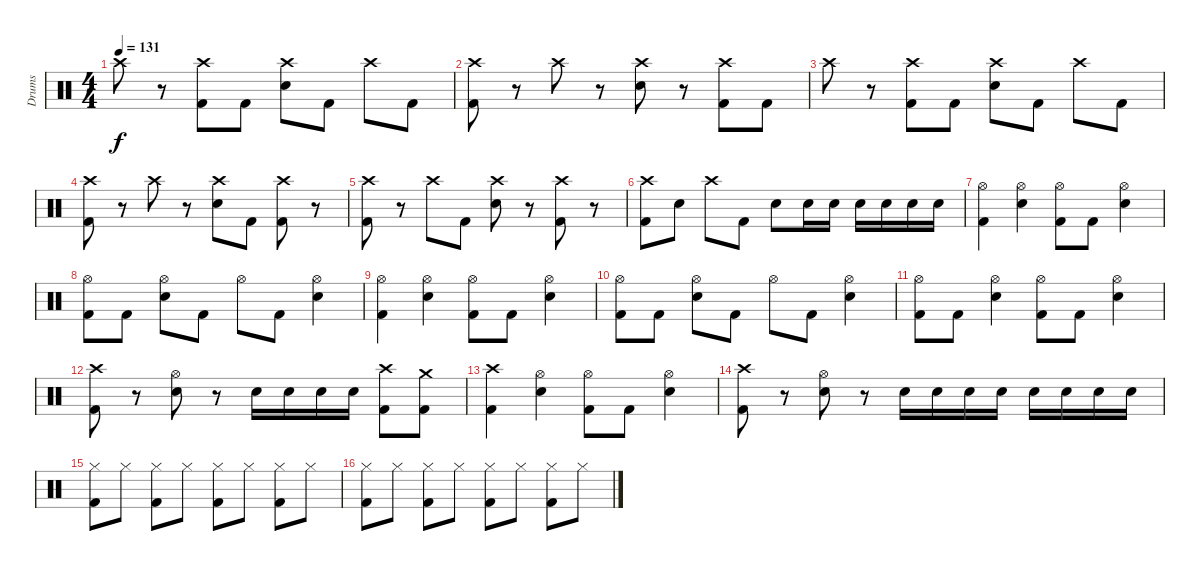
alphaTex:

\track ("Drums" "Drums") {instrument percussion}
\staff {score}
\articulation defaults
\ts (4 4)
\tempo 131
\clef neutral
\ks c "Crash high (hit)".8{dy f}
r.8 ("Crash high (hit)" "Kick (hit) 2").8 "Kick (hit) 2".8 ("Crash high (hit)" "Electric Snare (hit)").8 "Kick (hit) 2".8 "Crash high (hit)".8 "Kick (hit) 2".8 |
("Crash high (hit)" "Kick (hit) 2").8 r.8 "Crash high (hit)".8 r.8 ("Crash high (hit)" "Electric Snare (hit)").8 r.8 ("Crash high (hit)" "Kick (hit) 2").8 "Kick (hit) 2".8 |
"Crash high (hit)".8 r.8 ("Crash high (hit)" "Kick (hit) 2").8 "Kick (hit) 2".8 ("Crash high (hit)" "Electric Snare (hit)").8 "Kick (hit) 2".8 "Crash high (hit)".8 "Kick (hit) 2".8 |
("Crash high (hit)" "Kick (hit) 2").8 r.8 "Crash high (hit)".8 r.8 ("Crash high (hit)" "Electric Snare (hit)").8 "Kick (hit) 2".8 ("Crash high (hit)" "Kick (hit) 2").8 r.8 |
("Crash high (hit)" "Kick (hit) 2").8 r.8 "Crash high (hit)".8 "Kick (hit) 2".8 ("Crash high (hit)" "Electric Snare (hit)").8 r.8 ("Crash high (hit)" "Kick (hit) 2").8 r.8 |
("Crash high (hit)" "Kick (hit) 2").8 "Electric Snare (hit)".8 "Crash high (hit)".8 "Kick (hit) 2".8 "Electric Snare (hit)".8 "Electric Snare (hit)".16 "Electric Snare (hit)".16 "Electric Snare (hit)".16 "Electric Snare (hit)".16 "Electric Snare (hit)".16 "Electric Snare (hit)".16 |
("Hi-Hat (open)" "Kick (hit) 2").4 ("Hi-Hat (open)" "Electric Snare (hit)").4 ("Hi-Hat (open)" "Kick (hit) 2").8 "Kick (hit) 2".8 ("Hi-Hat (open)" "Electric Snare (hit)").4 |
("Hi-Hat (open)" "Kick (hit) 2").8 "Kick (hit) 2".8 ("Hi-Hat (open)" "Electric Snare (hit)").8 "Kick (hit) 2".8 "Hi-Hat (open)".8 "Kick (hit) 2".8 ("Hi-Hat (open)" "Electric Snare (hit)").4 |
("Hi-Hat (open)" "Kick (hit) 2").4 ("Hi-Hat (open)" "Electric Snare (hit)").4 ("Hi-Hat (open)" "Kick (hit) 2").8 "Kick (hit) 2".8 ("Hi-Hat (open)" "Electric Snare (hit)").4 |
("Hi-Hat (open)" "Kick (hit) 2").8 "Kick (hit) 2".8 ("Hi-Hat (open)" "Electric Snare (hit)").8 "Kick (hit) 2".8 "Hi-Hat (open)".8 "Kick (hit) 2".8 ("Hi-Hat (open)" "Electric Snare (hit)").4 |
("Hi-Hat (open)" "Kick (hit) 2").8 "Kick (hit) 2".8 ("Hi-Hat (open)" "Electric Snare (hit)").4 ("Hi-Hat (open)" "Kick (hit) 2").8 "Kick (hit) 2".8 ("Hi-Hat (open)" "Electric Snare (hit)").4 |
("Crash high (hit)" "Kick (hit) 2").8 r.8 ("Hi-Hat (open)" "Electric Snare (hit)").8 r.8 "Electric Snare (hit)".16 "Electric Snare (hit)".16 "Electric Snare (hit)".16 "Electric Snare (hit)".16 ("Crash high (hit)" "Kick (hit) 2").8 ("Crash medium (hit)" "Kick (hit) 2").8 |
("Crash high (hit)" "Kick (hit) 2").4 ("Hi-Hat (open)" "Electric Snare (hit)").4 ("Hi-Hat (open)" "Kick (hit) 2").8 "Kick (hit) 2".8 ("Hi-Hat (open)" "Electric Snare (hit)").4 |
("Crash high (hit)" "Kick (hit) 2").8 r.8 ("Hi-Hat (open)" "Electric Snare (hit)").8 r.8 "Electric Snare (hit)".16 "Electric Snare (hit)".16 "Electric Snare (hit)".16 "Electric Snare (hit)".16 "Electric Snare (hit)".16 "Electric Snare (hit)".16 "Electric Snare (hit)".16 "Electric Snare (hit)".16 |
("Hi-Hat (closed)" "Kick (hit) 2").8 "Hi-Hat (closed)".8 ("Hi-Hat (closed)" "Kick (hit) 2").8 "Hi-Hat (closed)".8 ("Hi-Hat (closed)" "Kick (hit) 2").8 "Hi-Hat (closed)".8 ("Hi-Hat (closed)" "Kick (hit) 2").8 "Hi-Hat (closed)".8 |
("Hi-Hat (closed)" "Kick (hit) 2").8 "Hi-Hat (closed)".8 ("Hi-Hat (closed)" "Kick (hit) 2").8 "Hi-Hat (closed)".8 ("Hi-Hat (closed)" "Kick (hit) 2").8 "Hi-Hat (closed)".8 ("Hi-Hat (closed)" "Kick (hit) 2").8 "Hi-Hat (closed)".8
